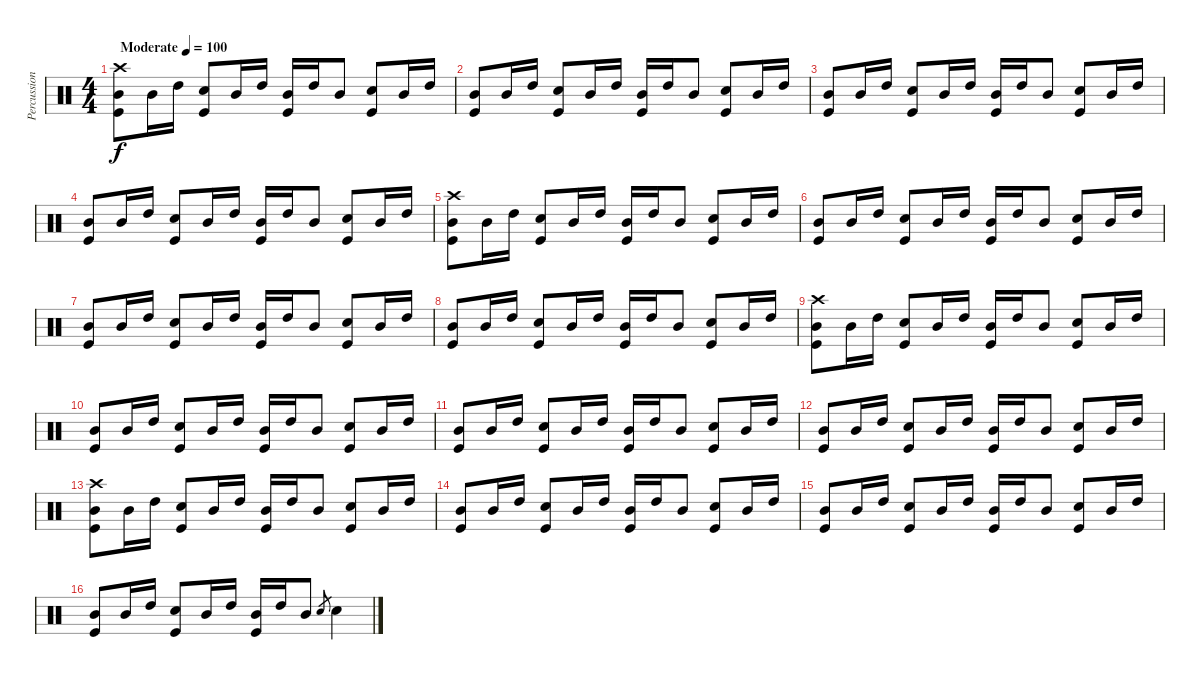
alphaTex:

\track ("Percussions" "Percussion") {instrument percussion}
\staff {score}
\articulation defaults
\ts (4 4)
\tempo (100 "Moderate")
\clef neutral
\ks c
("Kick (hit)" "Mid Tom (hit)" "Crash high (hit)").8{dy f} "Mid Tom (hit)".16 "High Tom (hit)".16 ("Snare (hit) 2" "Kick (hit)").8 "Mid Tom (hit)".16 "High Tom (hit)".16 ("Kick (hit)" "Mid Tom (hit)").16 "High Tom (hit)".16 "Mid Tom (hit)".8 ("Snare (hit) 2" "Kick (hit)").8 "Mid Tom (hit)".16 "High Tom (hit)".16 |
("Kick (hit)" "Mid Tom (hit)").8 "Mid Tom (hit)".16 "High Tom (hit)".16 ("Snare (hit) 2" "Kick (hit)").8 "Mid Tom (hit)".16 "High Tom (hit)".16 ("Kick (hit)" "Mid Tom (hit)").16 "High Tom (hit)".16 "Mid Tom (hit)".8 ("Snare (hit) 2" "Kick (hit)").8 "Mid Tom (hit)".16 "High Tom (hit)".16 |
("Kick (hit)" "Mid Tom (hit)").8 "Mid Tom (hit)".16 "High Tom (hit)".16 ("Snare (hit) 2" "Kick (hit)").8 "Mid Tom (hit)".16 "High Tom (hit)".16 ("Kick (hit)" "Mid Tom (hit)").16 "High Tom (hit)".16 "Mid Tom (hit)".8 ("Snare (hit) 2" "Kick (hit)").8 "Mid Tom (hit)".16 "High Tom (hit)".16 |
("Kick (hit)" "Mid Tom (hit)").8 "Mid Tom (hit)".16 "High Tom (hit)".16 ("Snare (hit) 2" "Kick (hit)").8 "Mid Tom (hit)".16 "High Tom (hit)".16 ("Kick (hit)" "Mid Tom (hit)").16 "High Tom (hit)".16 "Mid Tom (hit)".8 ("Snare (hit) 2" "Kick (hit)").8 "Mid Tom (hit)".16 "High Tom (hit)".16 |
("Kick (hit)" "Mid Tom (hit)" "Crash high (hit)").8 "Mid Tom (hit)".16 "High Tom (hit)".16 ("Snare (hit) 2" "Kick (hit)").8 "Mid Tom (hit)".16 "High Tom (hit)".16 ("Kick (hit)" "Mid Tom (hit)").16 "High Tom (hit)".16 "Mid Tom (hit)".8 ("Snare (hit) 2" "Kick (hit)").8 "Mid Tom (hit)".16 "High Tom (hit)".16 |
("Kick (hit)" "Mid Tom (hit)").8 "Mid Tom (hit)".16 "High Tom (hit)".16 ("Snare (hit) 2" "Kick (hit)").8 "Mid Tom (hit)".16 "High Tom (hit)".16 ("Kick (hit)" "Mid Tom (hit)").16 "High Tom (hit)".16 "Mid Tom (hit)".8 ("Snare (hit) 2" "Kick (hit)").8 "Mid Tom (hit)".16 "High Tom (hit)".16 |
("Kick (hit)" "Mid Tom (hit)").8 "Mid Tom (hit)".16 "High Tom (hit)".16 ("Snare (hit) 2" "Kick (hit)").8 "Mid Tom (hit)".16 "High Tom (hit)".16 ("Kick (hit)" "Mid Tom (hit)").16 "High Tom (hit)".16 "Mid Tom (hit)".8 ("Snare (hit) 2" "Kick (hit)").8 "Mid Tom (hit)".16 "High Tom (hit)".16 |
("Kick (hit)" "Mid Tom (hit)").8 "Mid Tom (hit)".16 "High Tom (hit)".16 ("Snare (hit) 2" "Kick (hit)").8 "Mid Tom (hit)".16 "High Tom (hit)".16 ("Kick (hit)" "Mid Tom (hit)").16 "High Tom (hit)".16 "Mid Tom (hit)".8 ("Snare (hit) 2" "Kick (hit)").8 "Mid Tom (hit)".16 "High Tom (hit)".16 |
("Kick (hit)" "Mid Tom (hit)" "Crash high (hit)").8 "Mid Tom (hit)".16 "High Tom (hit)".16 ("Snare (hit) 2" "Kick (hit)").8 "Mid Tom (hit)".16 "High Tom (hit)".16 ("Kick (hit)" "Mid Tom (hit)").16 "High Tom (hit)".16 "Mid Tom (hit)".8 ("Snare (hit) 2" "Kick (hit)").8 "Mid Tom (hit)".16 "High Tom (hit)".16 |
("Kick (hit)" "Mid Tom (hit)").8 "Mid Tom (hit)".16 "High Tom (hit)".16 ("Snare (hit) 2" "Kick (hit)").8 "Mid Tom (hit)".16 "High Tom (hit)".16 ("Kick (hit)" "Mid Tom (hit)").16 "High Tom (hit)".16 "Mid Tom (hit)".8 ("Snare (hit) 2" "Kick (hit)").8 "Mid Tom (hit)".16 "High Tom (hit)".16 |
("Kick (hit)" "Mid Tom (hit)").8 "Mid Tom (hit)".16 "High Tom (hit)".16 ("Snare (hit) 2" "Kick (hit)").8 "Mid Tom (hit)".16 "High Tom (hit)".16 ("Kick (hit)" "Mid Tom (hit)").16 "High Tom (hit)".16 "Mid Tom (hit)".8 ("Snare (hit) 2" "Kick (hit)").8 "Mid Tom (hit)".16 "High Tom (hit)".16 |
("Kick (hit)" "Mid Tom (hit)").8 "Mid Tom (hit)".16 "High Tom (hit)".16 ("Snare (hit) 2" "Kick (hit)").8 "Mid Tom (hit)".16 "High Tom (hit)".16 ("Kick (hit)" "Mid Tom (hit)").16 "High Tom (hit)".16 "Mid Tom (hit)".8 ("Snare (hit) 2" "Kick (hit)").8 "Mid Tom (hit)".16 "High Tom (hit)".16 |
("Kick (hit)" "Mid Tom (hit)" "Crash high (hit)").8 "Mid Tom (hit)".16 "High Tom (hit)".16 ("Snare (hit) 2" "Kick (hit)").8 "Mid Tom (hit)".16 "High Tom (hit)".16 ("Kick (hit)" "Mid Tom (hit)").16 "High Tom (hit)".16 "Mid Tom (hit)".8 ("Snare (hit) 2" "Kick (hit)").8 "Mid Tom (hit)".16 "High Tom (hit)".16 |
("Kick (hit)" "Mid Tom (hit)").8 "Mid Tom (hit)".16 "High Tom (hit)".16 ("Snare (hit) 2" "Kick (hit)").8 "Mid Tom (hit)".16 "High Tom (hit)".16 ("Kick (hit)" "Mid Tom (hit)").16 "High Tom (hit)".16 "Mid Tom (hit)".8 ("Snare (hit) 2" "Kick (hit)").8 "Mid Tom (hit)".16 "High Tom (hit)".16 |
("Kick (hit)" "Mid Tom (hit)").8 "Mid Tom (hit)".16 "High Tom (hit)".16 ("Snare (hit) 2" "Kick (hit)").8 "Mid Tom (hit)".16 "High Tom (hit)".16 ("Kick (hit)" "Mid Tom (hit)").16 "High Tom (hit)".16 "Mid Tom (hit)".8 ("Snare (hit) 2" "Kick (hit)").8 "Mid Tom (hit)".16 "High Tom (hit)".16 |
("Kick (hit)" "Mid Tom (hit)").8 "Mid Tom (hit)".16 "High Tom (hit)".16 ("Snare (hit) 2" "Kick (hit)").8 "Mid Tom (hit)".16 "High Tom (hit)".16 ("Kick (hit)" "Mid Tom (hit)").16 "High Tom (hit)".16 "Mid Tom (hit)".8 "Snare (hit) 2".8{gr} "Snare (hit) 2".4
